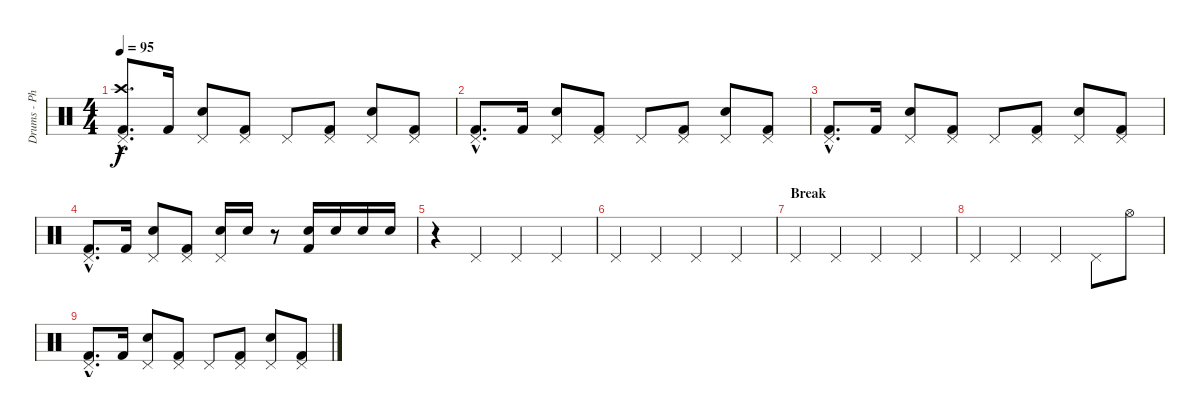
\track ("Drums - Phil Selway" "Drums - Ph") {instrument percussion}
\staff {score}
\articulation defaults
\ts (4 4)
\tempo 95
\clef neutral
\ks c
("Pedal Hi-Hat (hit)"{hac} "Crash high (hit)"{hac} "Kick (hit) 2"{hac}).8{d dy f} "Kick (hit) 2".16 ("Pedal Hi-Hat (hit)" "Snare (hit) 2").8 ("Pedal Hi-Hat (hit)" "Kick (hit) 2").8 "Pedal Hi-Hat (hit)".8 ("Pedal Hi-Hat (hit)" "Kick (hit) 2").8 ("Pedal Hi-Hat (hit)" "Snare (hit) 2").8 ("Pedal Hi-Hat (hit)" "Kick (hit) 2").8 |
("Pedal Hi-Hat (hit)"{hac} "Kick (hit) 2"{hac}).8{d} "Kick (hit) 2".16 ("Pedal Hi-Hat (hit)" "Snare (hit) 2").8 ("Pedal Hi-Hat (hit)" "Kick (hit) 2").8 "Pedal Hi-Hat (hit)".8 ("Pedal Hi-Hat (hit)" "Kick (hit) 2").8 ("Pedal Hi-Hat (hit)" "Snare (hit) 2").8 ("Pedal Hi-Hat (hit)" "Kick (hit) 2").8 |
("Pedal Hi-Hat (hit)"{hac} "Kick (hit) 2"{hac}).8{d} "Kick (hit) 2".16 ("Pedal Hi-Hat (hit)" "Snare (hit) 2").8 ("Pedal Hi-Hat (hit)" "Kick (hit) 2").8 "Pedal Hi-Hat (hit)".8 ("Pedal Hi-Hat (hit)" "Kick (hit) 2").8 ("Pedal Hi-Hat (hit)" "Snare (hit) 2").8 ("Pedal Hi-Hat (hit)" "Kick (hit) 2").8 |
("Pedal Hi-Hat (hit)"{hac} "Kick (hit) 2"{hac}).8{d} "Kick (hit) 2".16 ("Pedal Hi-Hat (hit)" "Snare (hit) 2").8 ("Pedal Hi-Hat (hit)" "Kick (hit) 2").8 ("Pedal Hi-Hat (hit)" "Snare (hit) 2").16 "Snare (hit) 2".16 r.8 ("Snare (hit) 2" "Kick (hit) 2").16 "Snare (hit) 2".16 "Snare (hit) 2".16 "Snare (hit) 2".16 |
r.4 "Pedal Hi-Hat (hit)".4 "Pedal Hi-Hat (hit)".4 "Pedal Hi-Hat (hit)".4 |
"Pedal Hi-Hat (hit)".4 "Pedal Hi-Hat (hit)".4 "Pedal Hi-Hat (hit)".4 "Pedal Hi-Hat (hit)".4 |
\section ("" "Break")
"Pedal Hi-Hat (hit)".4 "Pedal Hi-Hat (hit)".4 "Pedal Hi-Hat (hit)".4 "Pedal Hi-Hat (hit)".4 |
"Pedal Hi-Hat (hit)".4 "Pedal Hi-Hat (hit)".4 "Pedal Hi-Hat (hit)".4 "Pedal Hi-Hat (hit)".8 "Hi-Hat (open)".8 |
("Pedal Hi-Hat (hit)"{hac} "Kick (hit) 2"{hac}).8{d} "Kick (hit) 2".16 ("Pedal Hi-Hat (hit)" "Snare (hit) 2").8 ("Pedal Hi-Hat (hit)" "Kick (hit) 2").8 "Pedal Hi-Hat (hit)".8 ("Pedal Hi-Hat (hit)" "Kick (hit) 2").8 ("Pedal Hi-Hat (hit)" "Snare (hit) 2").8 ("Pedal Hi-Hat (hit)" "Kick (hit) 2").8
